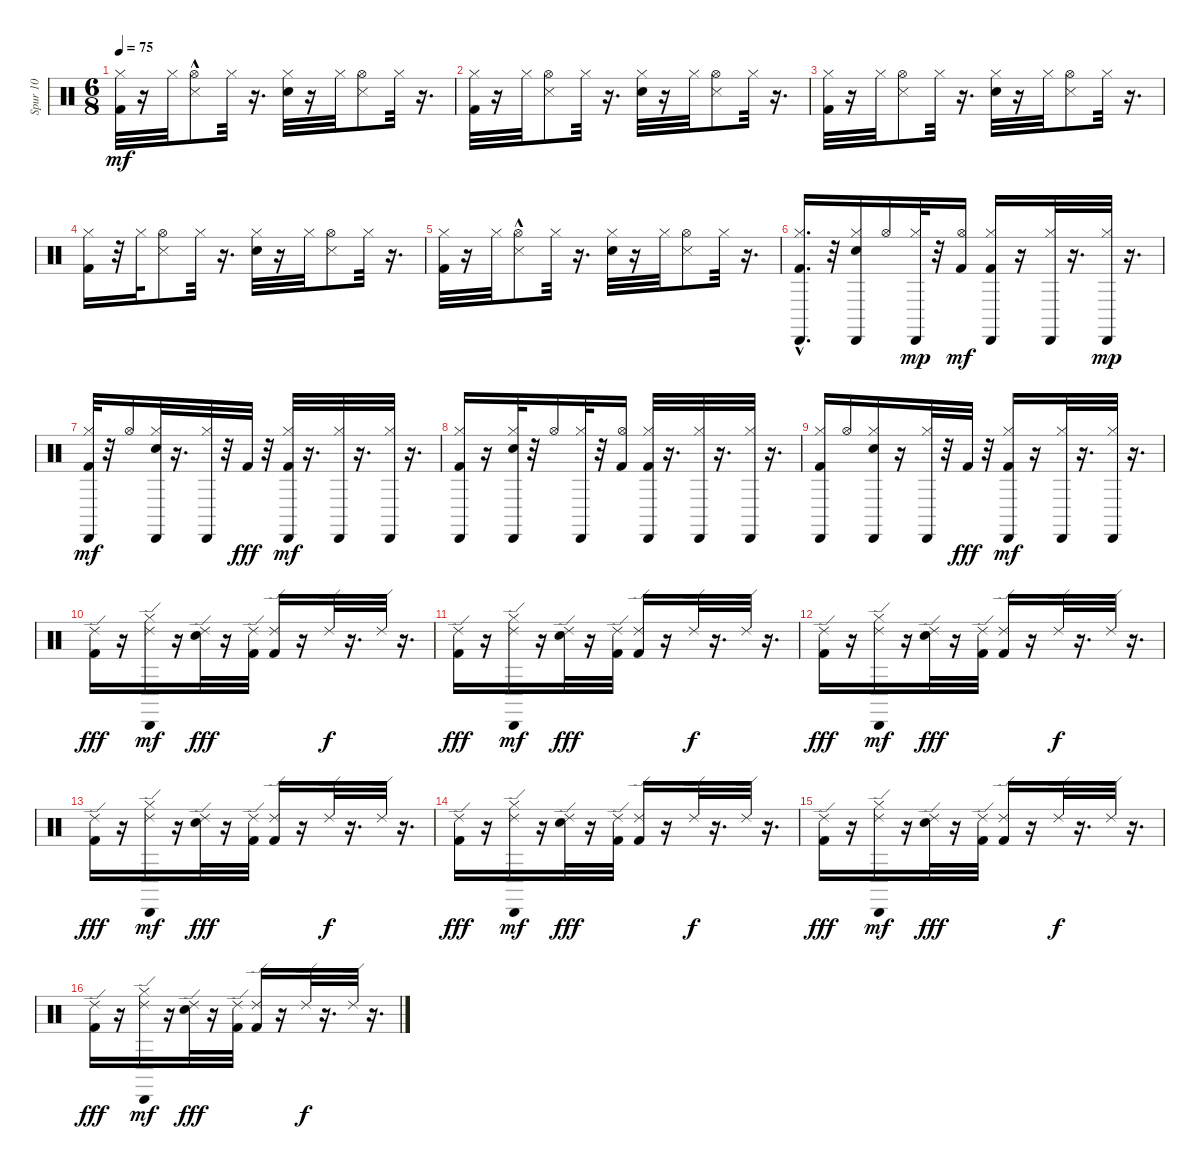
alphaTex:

\track ("Spur 10" "Spur 10") {instrument percussion}
\staff {score}
\articulation defaults
\ts (6 8)
\tempo 75
\clef neutral
\ks c
("Kick (hit) 2" "Hi-Hat (closed)").32{dy mf} r.16 "Hi-Hat (closed)".32 ("Snare (side stick) 3"{hac} "Hi-Hat (open)").8 "Hi-Hat (closed)".32 r.16{d} ("Snare (hit) 2" "Hi-Hat (closed)").32 r.16 "Hi-Hat (closed)".32 ("Snare (side stick) 3" "Hi-Hat (open)").8 "Hi-Hat (closed)".32 r.16{d} |
("Kick (hit) 2" "Hi-Hat (closed)").32 r.16 "Hi-Hat (closed)".32 ("Snare (side stick) 3" "Hi-Hat (open)").8 "Hi-Hat (closed)".32 r.16{d} ("Snare (hit) 2" "Hi-Hat (closed)").32 r.16 "Hi-Hat (closed)".32 ("Snare (side stick) 3" "Hi-Hat (open)").8 "Hi-Hat (closed)".32 r.16{d} |
("Kick (hit) 2" "Hi-Hat (closed)").32 r.16 "Hi-Hat (closed)".32 ("Snare (side stick) 3" "Hi-Hat (open)").8 "Hi-Hat (closed)".32 r.16{d} ("Snare (hit) 2" "Hi-Hat (closed)").32 r.16 "Hi-Hat (closed)".32 ("Snare (side stick) 3" "Hi-Hat (open)").8 "Hi-Hat (closed)".32 r.16{d} |
("Kick (hit) 2" "Hi-Hat (closed)").16 r.32 "Hi-Hat (closed)".32 ("Snare (side stick) 3" "Hi-Hat (open)").8 "Hi-Hat (closed)".32 r.16{d} ("Snare (hit) 2" "Hi-Hat (closed)").32 r.16 "Hi-Hat (closed)".32 ("Snare (side stick) 3" "Hi-Hat (open)").8 "Hi-Hat (closed)".32 r.16{d} |
("Kick (hit) 2" "Hi-Hat (closed)").32 r.16 "Hi-Hat (closed)".32 ("Snare (side stick) 3"{hac} "Hi-Hat (open)").8 "Hi-Hat (closed)".32 r.16{d} ("Snare (hit) 2" "Hi-Hat (closed)").32 r.16 "Hi-Hat (closed)".32 ("Snare (side stick) 3" "Hi-Hat (open)").8 "Hi-Hat (closed)".32 r.16{d} |
("Cabasa (hit)" "Kick (hit) 2"{hac} "Hi-Hat (closed)").16{d} r.32 ("Cabasa (hit)" "Snare (hit) 2" "Hi-Hat (closed)").16 "Hi-Hat (open)".16 ("Cabasa (hit)" "Hi-Hat (closed)").32{dy mp} r.32 ("Kick (hit) 2" "Hi-Hat (open)").16{dy mf} ("Cabasa (hit)" "Kick (hit) 2" "Hi-Hat (closed)").16 r.16 ("Cabasa (hit)" "Hi-Hat (closed)").32 r.16{d} ("Cabasa (hit)" "Hi-Hat (closed)").32{dy mp} r.16{d} |
("Cabasa (hit)" "Kick (hit) 2" "Hi-Hat (closed)").32{dy mf} r.32 "Hi-Hat (open)".16 ("Cabasa (hit)" "Snare (hit) 2" "Hi-Hat (closed)").32 r.16{d} ("Cabasa (hit)" "Hi-Hat (closed)").32 r.32 "Kick (hit) 2".32{dy fff} r.32 ("Cabasa (hit)" "Kick (hit) 2" "Hi-Hat (closed)").32{dy mf} r.16{d} ("Cabasa (hit)" "Hi-Hat (closed)").32 r.16{d} ("Cabasa (hit)" "Hi-Hat (closed)").32 r.16{d} |
("Cabasa (hit)" "Kick (hit) 2" "Hi-Hat (closed)").16 r.16 ("Cabasa (hit)" "Snare (hit) 2" "Hi-Hat (closed)").32 r.32 "Hi-Hat (open)".16 ("Cabasa (hit)" "Hi-Hat (closed)").32 r.32 ("Kick (hit) 2" "Hi-Hat (open)").16 ("Cabasa (hit)" "Kick (hit) 2" "Hi-Hat (closed)").32 r.16{d} ("Cabasa (hit)" "Hi-Hat (closed)").32 r.16{d} ("Cabasa (hit)" "Hi-Hat (closed)").32 r.16{d} |
("Cabasa (hit)" "Kick (hit) 2" "Hi-Hat (closed)").16 "Hi-Hat (open)".16 ("Cabasa (hit)" "Snare (hit) 2" "Hi-Hat (closed)").16 r.16 ("Cabasa (hit)" "Hi-Hat (closed)").32 r.32 "Kick (hit) 2".32{dy fff} r.32 ("Cabasa (hit)" "Kick (hit) 2" "Hi-Hat (closed)").16{dy mf} r.16 ("Cabasa (hit)" "Hi-Hat (closed)").32 r.16{d} ("Cabasa (hit)" "Hi-Hat (closed)").32 r.16{d} |
("Kick (hit) 2" "Ride (edge) 2").16{dy fff} r.16 ("Cabasa (hit)" "Hi-Hat (closed)" "Ride (edge) 2").16{dy mf} r.16 ("Snare (hit) 2" "Ride (edge) 2").32{dy fff} r.16 ("Kick (hit) 2" "Ride (edge) 2").32 ("Kick (hit) 2" "Ride (edge) 2").16 r.16 "Ride (edge) 2".32{dy f} r.16{d} "Ride (edge) 2".32 r.16{d} |
("Kick (hit) 2" "Ride (edge) 2").16{dy fff} r.16 ("Cabasa (hit)" "Hi-Hat (closed)" "Ride (edge) 2").16{dy mf} r.16 ("Snare (hit) 2" "Ride (edge) 2").32{dy fff} r.16 ("Kick (hit) 2" "Ride (edge) 2").32 ("Kick (hit) 2" "Ride (edge) 2").16 r.16 "Ride (edge) 2".32{dy f} r.16{d} "Ride (edge) 2".32 r.16{d} |
("Kick (hit) 2" "Ride (edge) 2").16{dy fff} r.16 ("Cabasa (hit)" "Hi-Hat (closed)" "Ride (edge) 2").16{dy mf} r.16 ("Snare (hit) 2" "Ride (edge) 2").32{dy fff} r.16 ("Kick (hit) 2" "Ride (edge) 2").32 ("Kick (hit) 2" "Ride (edge) 2").16 r.16 "Ride (edge) 2".32{dy f} r.16{d} "Ride (edge) 2".32 r.16{d} |
("Kick (hit) 2" "Ride (edge) 2").16{dy fff} r.16 ("Cabasa (hit)" "Hi-Hat (closed)" "Ride (edge) 2").16{dy mf} r.16 ("Snare (hit) 2" "Ride (edge) 2").32{dy fff} r.16 ("Kick (hit) 2" "Ride (edge) 2").32 ("Kick (hit) 2" "Ride (edge) 2").16 r.16 "Ride (edge) 2".32{dy f} r.16{d} "Ride (edge) 2".32 r.16{d} |
("Kick (hit) 2" "Ride (edge) 2").16{dy fff} r.16 ("Cabasa (hit)" "Hi-Hat (closed)" "Ride (edge) 2").16{dy mf} r.16 ("Snare (hit) 2" "Ride (edge) 2").32{dy fff} r.16 ("Kick (hit) 2" "Ride (edge) 2").32 ("Kick (hit) 2" "Ride (edge) 2").16 r.16 "Ride (edge) 2".32{dy f} r.16{d} "Ride (edge) 2".32 r.16{d} |
("Kick (hit) 2" "Ride (edge) 2").16{dy fff} r.16 ("Cabasa (hit)" "Hi-Hat (closed)" "Ride (edge) 2").16{dy mf} r.16 ("Snare (hit) 2" "Ride (edge) 2").32{dy fff} r.16 ("Kick (hit) 2" "Ride (edge) 2").32 ("Kick (hit) 2" "Ride (edge) 2").16 r.16 "Ride (edge) 2".32{dy f} r.16{d} "Ride (edge) 2".32 r.16{d} |
("Kick (hit) 2" "Ride (edge) 2").16{dy fff} r.16 ("Cabasa (hit)" "Hi-Hat (closed)" "Ride (edge) 2").16{dy mf} r.16 ("Snare (hit) 2" "Ride (edge) 2").32{dy fff} r.16 ("Kick (hit) 2" "Ride (edge) 2").32 ("Kick (hit) 2" "Ride (edge) 2").16 r.16 "Ride (edge) 2".32{dy f} r.16{d} "Ride (edge) 2".32 r.16{d}
